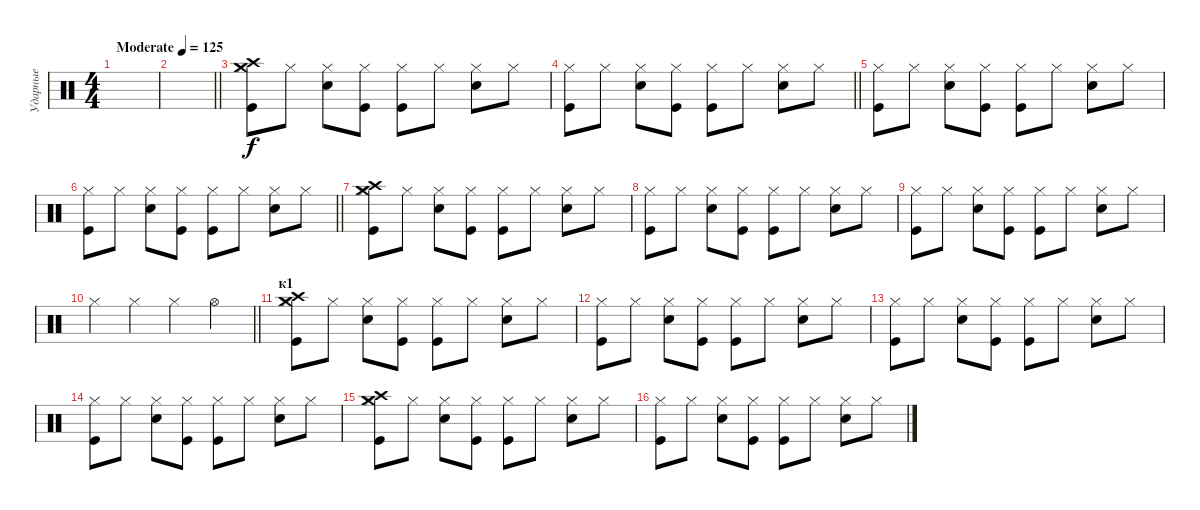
\track ("Ударные" "Ударные") {instrument percussion}
\staff {score}
\articulation defaults
\ts (4 4)
\tempo (125 "Moderate")
\clef neutral
\ks c
|
\barLineRight lightlight
|
("Kick (hit)" "Crash high (hit)" "Crash medium (hit)" "Hi-Hat (closed)").8 "Hi-Hat (closed)".8 ("Snare (hit) 2" "Hi-Hat (closed)").8 ("Kick (hit)" "Hi-Hat (closed)").8 ("Kick (hit)" "Hi-Hat (closed)").8 "Hi-Hat (closed)".8 ("Snare (hit) 2" "Hi-Hat (closed)").8 "Hi-Hat (closed)".8 |
\barLineRight lightlight
("Kick (hit)" "Hi-Hat (closed)").8 "Hi-Hat (closed)".8 ("Snare (hit) 2" "Hi-Hat (closed)").8 ("Kick (hit)" "Hi-Hat (closed)").8 ("Kick (hit)" "Hi-Hat (closed)").8 "Hi-Hat (closed)".8 ("Snare (hit) 2" "Hi-Hat (closed)").8 "Hi-Hat (closed)".8 |
("Kick (hit)" "Hi-Hat (closed)").8 "Hi-Hat (closed)".8 ("Snare (hit) 2" "Hi-Hat (closed)").8 ("Kick (hit)" "Hi-Hat (closed)").8 ("Kick (hit)" "Hi-Hat (closed)").8 "Hi-Hat (closed)".8 ("Snare (hit) 2" "Hi-Hat (closed)").8 "Hi-Hat (closed)".8 |
\barLineRight lightlight
("Kick (hit)" "Hi-Hat (closed)").8 "Hi-Hat (closed)".8 ("Snare (hit) 2" "Hi-Hat (closed)").8 ("Kick (hit)" "Hi-Hat (closed)").8 ("Kick (hit)" "Hi-Hat (closed)").8 "Hi-Hat (closed)".8 ("Snare (hit) 2" "Hi-Hat (closed)").8 "Hi-Hat (closed)".8 |
("Kick (hit)" "Crash high (hit)" "Crash medium (hit)" "Hi-Hat (closed)").8 "Hi-Hat (closed)".8 ("Snare (hit) 2" "Hi-Hat (closed)").8 ("Kick (hit)" "Hi-Hat (closed)").8 ("Kick (hit)" "Hi-Hat (closed)").8 "Hi-Hat (closed)".8 ("Snare (hit) 2" "Hi-Hat (closed)").8 "Hi-Hat (closed)".8 |
("Kick (hit)" "Hi-Hat (closed)").8 "Hi-Hat (closed)".8 ("Snare (hit) 2" "Hi-Hat (closed)").8 ("Kick (hit)" "Hi-Hat (closed)").8 ("Kick (hit)" "Hi-Hat (closed)").8 "Hi-Hat (closed)".8 ("Snare (hit) 2" "Hi-Hat (closed)").8 "Hi-Hat (closed)".8 |
("Kick (hit)" "Hi-Hat (closed)").8 "Hi-Hat (closed)".8 ("Snare (hit) 2" "Hi-Hat (closed)").8 ("Kick (hit)" "Hi-Hat (closed)").8 ("Kick (hit)" "Hi-Hat (closed)").8 "Hi-Hat (closed)".8 ("Snare (hit) 2" "Hi-Hat (closed)").8 "Hi-Hat (closed)".8 |
\barLineRight lightlight "Hi-Hat (closed)".4 "Hi-Hat (closed)".4 "Hi-Hat (closed)".4 "Hi-Hat (open)".4
|
\section ("" "к1")
("Kick (hit)" "Crash high (hit)" "Crash medium (hit)" "Hi-Hat (closed)").8 "Hi-Hat (closed)".8 ("Snare (hit) 2" "Hi-Hat (closed)").8 ("Kick (hit)" "Hi-Hat (closed)").8 ("Kick (hit)" "Hi-Hat (closed)").8 "Hi-Hat (closed)".8 ("Snare (hit) 2" "Hi-Hat (closed)").8 "Hi-Hat (closed)".8 |
("Kick (hit)" "Hi-Hat (closed)").8 "Hi-Hat (closed)".8 ("Snare (hit) 2" "Hi-Hat (closed)").8 ("Kick (hit)" "Hi-Hat (closed)").8 ("Kick (hit)" "Hi-Hat (closed)").8 "Hi-Hat (closed)".8 ("Snare (hit) 2" "Hi-Hat (closed)").8 "Hi-Hat (closed)".8 |
("Kick (hit)" "Hi-Hat (closed)").8 "Hi-Hat (closed)".8 ("Snare (hit) 2" "Hi-Hat (closed)").8 ("Kick (hit)" "Hi-Hat (closed)").8 ("Kick (hit)" "Hi-Hat (closed)").8 "Hi-Hat (closed)".8 ("Snare (hit) 2" "Hi-Hat (closed)").8 "Hi-Hat (closed)".8 |
("Kick (hit)" "Hi-Hat (closed)").8 "Hi-Hat (closed)".8 ("Snare (hit) 2" "Hi-Hat (closed)").8 ("Kick (hit)" "Hi-Hat (closed)").8 ("Kick (hit)" "Hi-Hat (closed)").8 "Hi-Hat (closed)".8 ("Snare (hit) 2" "Hi-Hat (closed)").8 "Hi-Hat (closed)".8 |
("Kick (hit)" "Crash high (hit)" "Crash medium (hit)" "Hi-Hat (closed)").8 "Hi-Hat (closed)".8 ("Snare (hit) 2" "Hi-Hat (closed)").8 ("Kick (hit)" "Hi-Hat (closed)").8 ("Kick (hit)" "Hi-Hat (closed)").8 "Hi-Hat (closed)".8 ("Snare (hit) 2" "Hi-Hat (closed)").8 "Hi-Hat (closed)".8 |
("Kick (hit)" "Hi-Hat (closed)").8 "Hi-Hat (closed)".8 ("Snare (hit) 2" "Hi-Hat (closed)").8 ("Kick (hit)" "Hi-Hat (closed)").8 ("Kick (hit)" "Hi-Hat (closed)").8 "Hi-Hat (closed)".8 ("Snare (hit) 2" "Hi-Hat (closed)").8 "Hi-Hat (closed)".8
